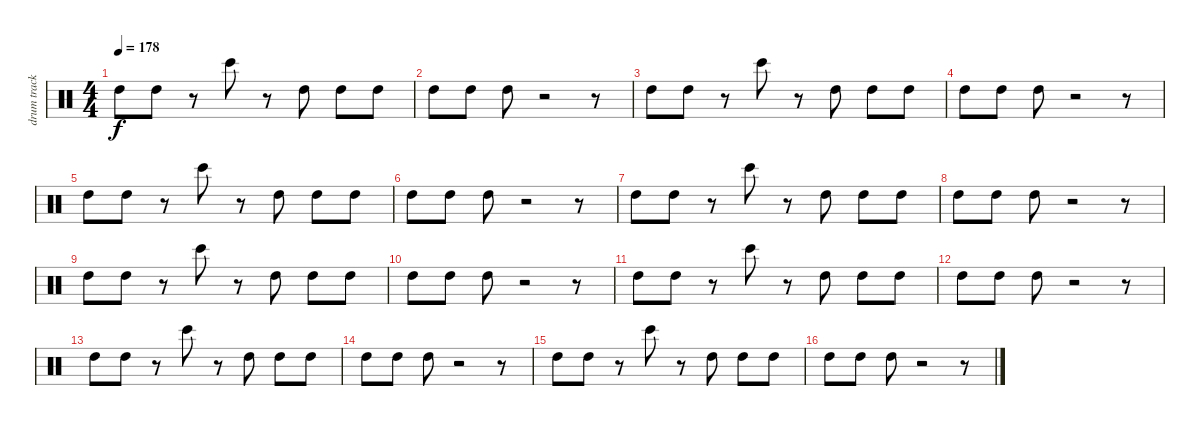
\track ("drum track II" "drum track") {instrument percussion}
\staff {score}
\articulation defaults
\ts (4 4)
\tempo 178
\clef neutral
\ks c "High Tom (hit)".8{dy f} "High Tom (hit)".8
r.8 "Bongo High (hit)".8 r.8 "High Tom (hit)".8 "High Tom (hit)".8 "High Tom (hit)".8 |
"High Tom (hit)".8 "High Tom (hit)".8 "High Tom (hit)".8 r.2 r.8 |
"High Tom (hit)".8 "High Tom (hit)".8 r.8 "Bongo High (hit)".8 r.8 "High Tom (hit)".8 "High Tom (hit)".8 "High Tom (hit)".8 |
"High Tom (hit)".8 "High Tom (hit)".8 "High Tom (hit)".8 r.2 r.8 |
"High Tom (hit)".8 "High Tom (hit)".8 r.8 "Bongo High (hit)".8 r.8 "High Tom (hit)".8 "High Tom (hit)".8 "High Tom (hit)".8 |
"High Tom (hit)".8 "High Tom (hit)".8 "High Tom (hit)".8 r.2 r.8 |
"High Tom (hit)".8 "High Tom (hit)".8 r.8 "Bongo High (hit)".8 r.8 "High Tom (hit)".8 "High Tom (hit)".8 "High Tom (hit)".8 |
"High Tom (hit)".8 "High Tom (hit)".8 "High Tom (hit)".8 r.2 r.8 |
"High Tom (hit)".8 "High Tom (hit)".8 r.8 "Bongo High (hit)".8 r.8 "High Tom (hit)".8 "High Tom (hit)".8 "High Tom (hit)".8 |
"High Tom (hit)".8 "High Tom (hit)".8 "High Tom (hit)".8 r.2 r.8 |
"High Tom (hit)".8 "High Tom (hit)".8 r.8 "Bongo High (hit)".8 r.8 "High Tom (hit)".8 "High Tom (hit)".8 "High Tom (hit)".8 |
"High Tom (hit)".8 "High Tom (hit)".8 "High Tom (hit)".8 r.2 r.8 |
"High Tom (hit)".8 "High Tom (hit)".8 r.8 "Bongo High (hit)".8 r.8 "High Tom (hit)".8 "High Tom (hit)".8 "High Tom (hit)".8 |
"High Tom (hit)".8 "High Tom (hit)".8 "High Tom (hit)".8 r.2 r.8 |
"High Tom (hit)".8 "High Tom (hit)".8 r.8 "Bongo High (hit)".8 r.8 "High Tom (hit)".8 "High Tom (hit)".8 "High Tom (hit)".8 |
"High Tom (hit)".8 "High Tom (hit)".8 "High Tom (hit)".8 r.2 r.8
